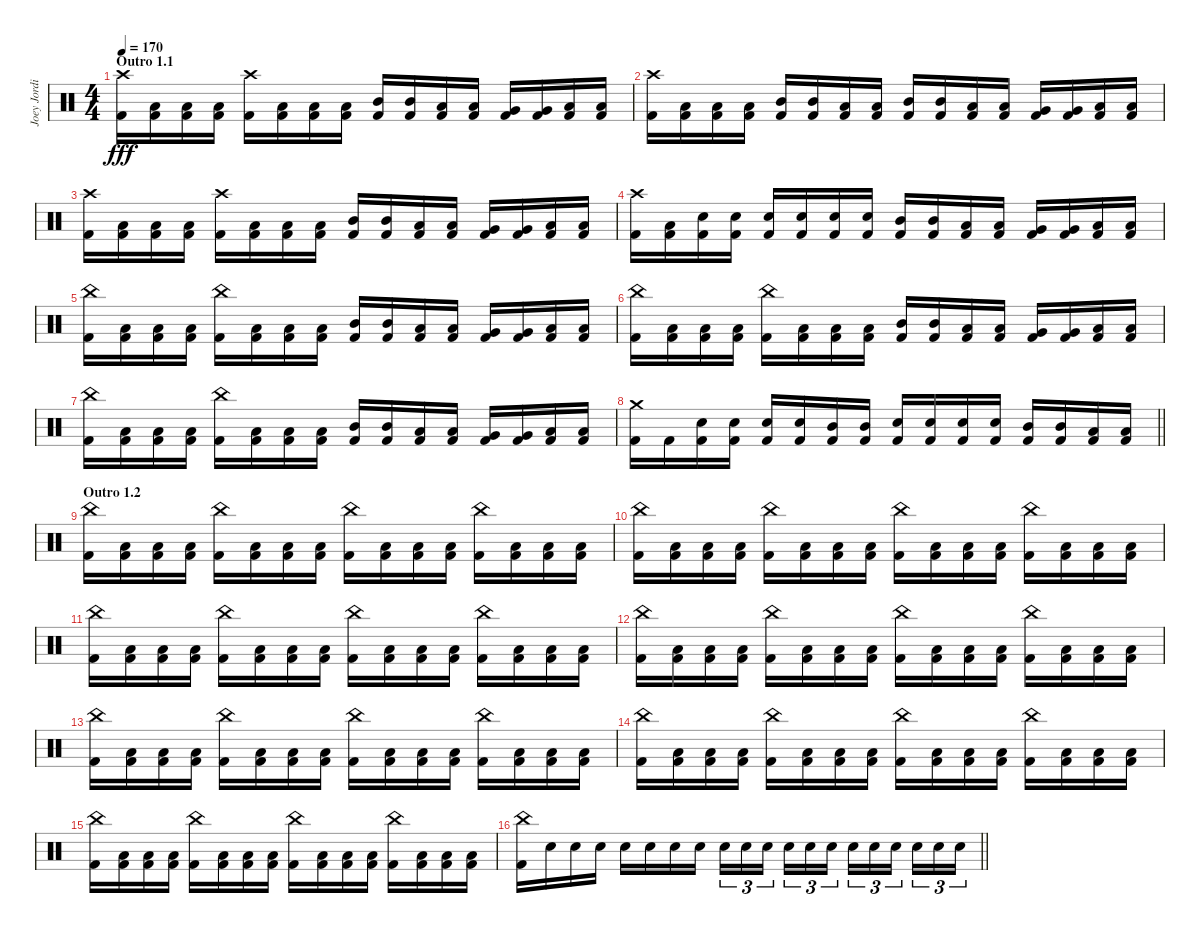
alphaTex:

\track ("Joey Jordison" "Joey Jordi") {instrument percussion}
\staff {score}
\articulation defaults
\ts (4 4)
\section ("" "Outro 1.1")
\tempo 170
\clef neutral
\ks c
("Crash high (hit)" "Kick (hit) 2").16{dy fff} ("Low Tom (hit)" "Kick (hit) 2").16 ("Low Tom (hit)" "Kick (hit) 2").16 ("Low Tom (hit)" "Kick (hit) 2").16 ("Crash high (hit)" "Kick (hit) 2").16 ("Low Tom (hit)" "Kick (hit) 2").16 ("Low Tom (hit)" "Kick (hit) 2").16 ("Low Tom (hit)" "Kick (hit) 2").16 ("Mid Tom (hit)" "Kick (hit) 2").16 ("Mid Tom (hit)" "Kick (hit) 2").16 ("Low Tom (hit)" "Kick (hit) 2").16 ("Low Tom (hit)" "Kick (hit) 2").16 ("Very Low Tom (hit)" "Kick (hit) 2").16 ("Very Low Tom (hit)" "Kick (hit) 2").16 ("Low Floor Tom (hit)" "Kick (hit) 2").16 ("Low Floor Tom (hit)" "Kick (hit) 2").16 |
("Crash high (hit)" "Kick (hit) 2").16 ("Low Tom (hit)" "Kick (hit) 2").16 ("Low Tom (hit)" "Kick (hit) 2").16 ("Low Tom (hit)" "Kick (hit) 2").16 ("Mid Tom (hit)" "Kick (hit) 2").16 ("Mid Tom (hit)" "Kick (hit) 2").16 ("Low Tom (hit)" "Kick (hit) 2").16 ("Low Tom (hit)" "Kick (hit) 2").16 ("Mid Tom (hit)" "Kick (hit) 2").16 ("Mid Tom (hit)" "Kick (hit) 2").16 ("Low Tom (hit)" "Kick (hit) 2").16 ("Low Tom (hit)" "Kick (hit) 2").16 ("Very Low Tom (hit)" "Kick (hit) 2").16 ("Very Low Tom (hit)" "Kick (hit) 2").16 ("Low Floor Tom (hit)" "Kick (hit) 2").16 ("Low Floor Tom (hit)" "Kick (hit) 2").16 |
("Crash high (hit)" "Kick (hit) 2").16 ("Low Tom (hit)" "Kick (hit) 2").16 ("Low Tom (hit)" "Kick (hit) 2").16 ("Low Tom (hit)" "Kick (hit) 2").16 ("Crash high (hit)" "Kick (hit) 2").16 ("Low Tom (hit)" "Kick (hit) 2").16 ("Low Tom (hit)" "Kick (hit) 2").16 ("Low Tom (hit)" "Kick (hit) 2").16 ("Mid Tom (hit)" "Kick (hit) 2").16 ("Mid Tom (hit)" "Kick (hit) 2").16 ("Low Tom (hit)" "Kick (hit) 2").16 ("Low Tom (hit)" "Kick (hit) 2").16 ("Very Low Tom (hit)" "Kick (hit) 2").16 ("Very Low Tom (hit)" "Kick (hit) 2").16 ("Low Floor Tom (hit)" "Kick (hit) 2").16 ("Low Floor Tom (hit)" "Kick (hit) 2").16 |
("Crash high (hit)" "Kick (hit) 2").16 ("Low Tom (hit)" "Kick (hit) 2").16 ("Electric Snare (hit)" "Kick (hit) 2").16 ("Electric Snare (hit)" "Kick (hit) 2").16 ("Electric Snare (hit)" "Kick (hit) 2").16 ("Electric Snare (hit)" "Kick (hit) 2").16 ("Electric Snare (hit)" "Kick (hit) 2").16 ("Electric Snare (hit)" "Kick (hit) 2").16 ("Mid Tom (hit)" "Kick (hit) 2").16 ("Mid Tom (hit)" "Kick (hit) 2").16 ("Low Tom (hit)" "Kick (hit) 2").16 ("Low Tom (hit)" "Kick (hit) 2").16 ("Very Low Tom (hit)" "Kick (hit) 2").16 ("Very Low Tom (hit)" "Kick (hit) 2").16 ("Low Floor Tom (hit)" "Kick (hit) 2").16 ("Low Floor Tom (hit)" "Kick (hit) 2").16 |
("China (hit)" "Kick (hit) 2").16 ("Low Tom (hit)" "Kick (hit) 2").16 ("Low Tom (hit)" "Kick (hit) 2").16 ("Low Tom (hit)" "Kick (hit) 2").16 ("China (hit)" "Kick (hit) 2").16 ("Low Tom (hit)" "Kick (hit) 2").16 ("Low Tom (hit)" "Kick (hit) 2").16 ("Low Tom (hit)" "Kick (hit) 2").16 ("Mid Tom (hit)" "Kick (hit) 2").16 ("Mid Tom (hit)" "Kick (hit) 2").16 ("Low Tom (hit)" "Kick (hit) 2").16 ("Low Tom (hit)" "Kick (hit) 2").16 ("Very Low Tom (hit)" "Kick (hit) 2").16 ("Very Low Tom (hit)" "Kick (hit) 2").16 ("Low Floor Tom (hit)" "Kick (hit) 2").16 ("Low Floor Tom (hit)" "Kick (hit) 2").16 |
("China (hit)" "Kick (hit) 2").16 ("Low Tom (hit)" "Kick (hit) 2").16 ("Low Tom (hit)" "Kick (hit) 2").16 ("Low Tom (hit)" "Kick (hit) 2").16 ("China (hit)" "Kick (hit) 2").16 ("Low Tom (hit)" "Kick (hit) 2").16 ("Low Tom (hit)" "Kick (hit) 2").16 ("Low Tom (hit)" "Kick (hit) 2").16 ("Mid Tom (hit)" "Kick (hit) 2").16 ("Mid Tom (hit)" "Kick (hit) 2").16 ("Low Tom (hit)" "Kick (hit) 2").16 ("Low Tom (hit)" "Kick (hit) 2").16 ("Very Low Tom (hit)" "Kick (hit) 2").16 ("Very Low Tom (hit)" "Kick (hit) 2").16 ("Low Floor Tom (hit)" "Kick (hit) 2").16 ("Low Floor Tom (hit)" "Kick (hit) 2").16 |
("China (hit)" "Kick (hit) 2").16 ("Low Tom (hit)" "Kick (hit) 2").16 ("Low Tom (hit)" "Kick (hit) 2").16 ("Low Tom (hit)" "Kick (hit) 2").16 ("China (hit)" "Kick (hit) 2").16 ("Low Tom (hit)" "Kick (hit) 2").16 ("Low Tom (hit)" "Kick (hit) 2").16 ("Low Tom (hit)" "Kick (hit) 2").16 ("Mid Tom (hit)" "Kick (hit) 2").16 ("Mid Tom (hit)" "Kick (hit) 2").16 ("Low Tom (hit)" "Kick (hit) 2").16 ("Low Tom (hit)" "Kick (hit) 2").16 ("Very Low Tom (hit)" "Kick (hit) 2").16 ("Very Low Tom (hit)" "Kick (hit) 2").16 ("Low Floor Tom (hit)" "Kick (hit) 2").16 ("Low Floor Tom (hit)" "Kick (hit) 2").16 |
\barLineRight lightlight
("Crash medium (hit)" "Kick (hit) 2").16 "Kick (hit) 2".16 ("Electric Snare (hit)" "Kick (hit) 2").16 ("Electric Snare (hit)" "Kick (hit) 2").16 ("Electric Snare (hit)" "Kick (hit) 2").16 ("Electric Snare (hit)" "Kick (hit) 2").16 ("Mid Tom (hit)" "Kick (hit) 2").16 ("Mid Tom (hit)" "Kick (hit) 2").16 ("Electric Snare (hit)" "Kick (hit) 2").16 ("Electric Snare (hit)" "Kick (hit) 2").16 ("Electric Snare (hit)" "Kick (hit) 2").16 ("Electric Snare (hit)" "Kick (hit) 2").16 ("Mid Tom (hit)" "Kick (hit) 2").16 ("Mid Tom (hit)" "Kick (hit) 2").16 ("Low Tom (hit)" "Kick (hit) 2").16 ("Low Tom (hit)" "Kick (hit) 2").16 |
\section ("" "Outro 1.2")
("China (hit)" "Kick (hit) 2").16 ("Low Floor Tom (hit)" "Kick (hit) 2").16 ("Low Floor Tom (hit)" "Kick (hit) 2").16 ("Low Floor Tom (hit)" "Kick (hit) 2").16 ("China (hit)" "Kick (hit) 2").16 ("Low Floor Tom (hit)" "Kick (hit) 2").16 ("Low Floor Tom (hit)" "Kick (hit) 2").16 ("Low Floor Tom (hit)" "Kick (hit) 2").16 ("China (hit)" "Kick (hit) 2").16 ("Low Floor Tom (hit)" "Kick (hit) 2").16 ("Low Floor Tom (hit)" "Kick (hit) 2").16 ("Low Floor Tom (hit)" "Kick (hit) 2").16 ("China (hit)" "Kick (hit) 2").16 ("Low Floor Tom (hit)" "Kick (hit) 2").16 ("Low Floor Tom (hit)" "Kick (hit) 2").16 ("Low Floor Tom (hit)" "Kick (hit) 2").16 |
("China (hit)" "Kick (hit) 2").16 ("Low Floor Tom (hit)" "Kick (hit) 2").16 ("Low Floor Tom (hit)" "Kick (hit) 2").16 ("Low Floor Tom (hit)" "Kick (hit) 2").16 ("China (hit)" "Kick (hit) 2").16 ("Low Floor Tom (hit)" "Kick (hit) 2").16 ("Low Floor Tom (hit)" "Kick (hit) 2").16 ("Low Floor Tom (hit)" "Kick (hit) 2").16 ("China (hit)" "Kick (hit) 2").16 ("Low Floor Tom (hit)" "Kick (hit) 2").16 ("Low Floor Tom (hit)" "Kick (hit) 2").16 ("Low Floor Tom (hit)" "Kick (hit) 2").16 ("China (hit)" "Kick (hit) 2").16 ("Low Floor Tom (hit)" "Kick (hit) 2").16 ("Low Floor Tom (hit)" "Kick (hit) 2").16 ("Low Floor Tom (hit)" "Kick (hit) 2").16 |
("China (hit)" "Kick (hit) 2").16 ("Low Floor Tom (hit)" "Kick (hit) 2").16 ("Low Floor Tom (hit)" "Kick (hit) 2").16 ("Low Floor Tom (hit)" "Kick (hit) 2").16 ("China (hit)" "Kick (hit) 2").16 ("Low Floor Tom (hit)" "Kick (hit) 2").16 ("Low Floor Tom (hit)" "Kick (hit) 2").16 ("Low Floor Tom (hit)" "Kick (hit) 2").16 ("China (hit)" "Kick (hit) 2").16 ("Low Floor Tom (hit)" "Kick (hit) 2").16 ("Low Floor Tom (hit)" "Kick (hit) 2").16 ("Low Floor Tom (hit)" "Kick (hit) 2").16 ("China (hit)" "Kick (hit) 2").16 ("Low Floor Tom (hit)" "Kick (hit) 2").16 ("Low Floor Tom (hit)" "Kick (hit) 2").16 ("Low Floor Tom (hit)" "Kick (hit) 2").16 |
("China (hit)" "Kick (hit) 2").16 ("Low Floor Tom (hit)" "Kick (hit) 2").16 ("Low Floor Tom (hit)" "Kick (hit) 2").16 ("Low Floor Tom (hit)" "Kick (hit) 2").16 ("China (hit)" "Kick (hit) 2").16 ("Low Floor Tom (hit)" "Kick (hit) 2").16 ("Low Floor Tom (hit)" "Kick (hit) 2").16 ("Low Floor Tom (hit)" "Kick (hit) 2").16 ("China (hit)" "Kick (hit) 2").16 ("Low Floor Tom (hit)" "Kick (hit) 2").16 ("Low Floor Tom (hit)" "Kick (hit) 2").16 ("Low Floor Tom (hit)" "Kick (hit) 2").16 ("China (hit)" "Kick (hit) 2").16 ("Low Floor Tom (hit)" "Kick (hit) 2").16 ("Low Floor Tom (hit)" "Kick (hit) 2").16 ("Low Floor Tom (hit)" "Kick (hit) 2").16 |
("China (hit)" "Kick (hit) 2").16 ("Low Floor Tom (hit)" "Kick (hit) 2").16 ("Low Floor Tom (hit)" "Kick (hit) 2").16 ("Low Floor Tom (hit)" "Kick (hit) 2").16 ("China (hit)" "Kick (hit) 2").16 ("Low Floor Tom (hit)" "Kick (hit) 2").16 ("Low Floor Tom (hit)" "Kick (hit) 2").16 ("Low Floor Tom (hit)" "Kick (hit) 2").16 ("China (hit)" "Kick (hit) 2").16 ("Low Floor Tom (hit)" "Kick (hit) 2").16 ("Low Floor Tom (hit)" "Kick (hit) 2").16 ("Low Floor Tom (hit)" "Kick (hit) 2").16 ("China (hit)" "Kick (hit) 2").16 ("Low Floor Tom (hit)" "Kick (hit) 2").16 ("Low Floor Tom (hit)" "Kick (hit) 2").16 ("Low Floor Tom (hit)" "Kick (hit) 2").16 |
("China (hit)" "Kick (hit) 2").16 ("Low Floor Tom (hit)" "Kick (hit) 2").16 ("Low Floor Tom (hit)" "Kick (hit) 2").16 ("Low Floor Tom (hit)" "Kick (hit) 2").16 ("China (hit)" "Kick (hit) 2").16 ("Low Floor Tom (hit)" "Kick (hit) 2").16 ("Low Floor Tom (hit)" "Kick (hit) 2").16 ("Low Floor Tom (hit)" "Kick (hit) 2").16 ("China (hit)" "Kick (hit) 2").16 ("Low Floor Tom (hit)" "Kick (hit) 2").16 ("Low Floor Tom (hit)" "Kick (hit) 2").16 ("Low Floor Tom (hit)" "Kick (hit) 2").16 ("China (hit)" "Kick (hit) 2").16 ("Low Floor Tom (hit)" "Kick (hit) 2").16 ("Low Floor Tom (hit)" "Kick (hit) 2").16 ("Low Floor Tom (hit)" "Kick (hit) 2").16 |
("China (hit)" "Kick (hit) 2").16 ("Low Floor Tom (hit)" "Kick (hit) 2").16 ("Low Floor Tom (hit)" "Kick (hit) 2").16 ("Low Floor Tom (hit)" "Kick (hit) 2").16 ("China (hit)" "Kick (hit) 2").16 ("Low Floor Tom (hit)" "Kick (hit) 2").16 ("Low Floor Tom (hit)" "Kick (hit) 2").16 ("Low Floor Tom (hit)" "Kick (hit) 2").16 ("China (hit)" "Kick (hit) 2").16 ("Low Floor Tom (hit)" "Kick (hit) 2").16 ("Low Floor Tom (hit)" "Kick (hit) 2").16 ("Low Floor Tom (hit)" "Kick (hit) 2").16 ("China (hit)" "Kick (hit) 2").16 ("Low Floor Tom (hit)" "Kick (hit) 2").16 ("Low Floor Tom (hit)" "Kick (hit) 2").16 ("Low Floor Tom (hit)" "Kick (hit) 2").16 |
\barLineRight lightlight
("China (hit)" "Kick (hit) 2").16 "Electric Snare (hit)".16 "Electric Snare (hit)".16 "Electric Snare (hit)".16 "Electric Snare (hit)".16 "Electric Snare (hit)".16 "Electric Snare (hit)".16 "Electric Snare (hit)".16 "Electric Snare (hit)".16{tu (3 2)} "Electric Snare (hit)".16{tu (3 2)} "Electric Snare (hit)".16{tu (3 2) beam splitsecondary} "Electric Snare (hit)".16{tu (3 2)} "Electric Snare (hit)".16{tu (3 2)} "Electric Snare (hit)".16{tu (3 2)} "Electric Snare (hit)".16{tu (3 2)} "Electric Snare (hit)".16{tu (3 2)} "Electric Snare (hit)".16{tu (3 2) beam splitsecondary} "Electric Snare (hit)".16{tu (3 2)} "Electric Snare (hit)".16{tu (3 2)} "Electric Snare (hit)".16{tu (3 2)}
